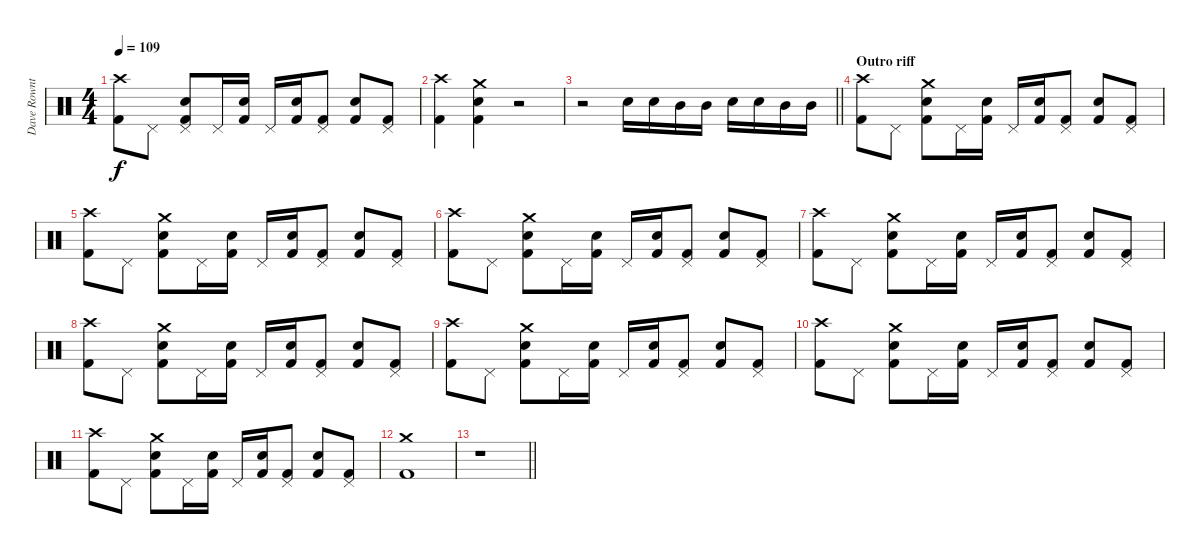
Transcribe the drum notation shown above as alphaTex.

\track ("Dave Rowntree - Drums" "Dave Rownt") {instrument percussion}
\staff {score}
\articulation defaults
\ts (4 4)
\tempo 109
\clef neutral
\ks c
("Kick (hit) 2" "Crash high (hit)").8{dy f} "Pedal Hi-Hat (hit)".8 ("Kick (hit) 2" "Pedal Hi-Hat (hit)" "Electric Snare (hit)").8 "Pedal Hi-Hat (hit)".16 ("Kick (hit) 2" "Electric Snare (hit)").16 "Pedal Hi-Hat (hit)".16 ("Kick (hit) 2" "Electric Snare (hit)").16 ("Kick (hit) 2" "Pedal Hi-Hat (hit)").8 ("Kick (hit) 2" "Electric Snare (hit)").8 ("Kick (hit) 2" "Pedal Hi-Hat (hit)").8 |
("Kick (hit) 2" "Crash high (hit)").4 ("Kick (hit) 2" "Crash medium (hit)" "Electric Snare (hit)").4 r.2 |
\barLineRight lightlight
r.2 "Electric Snare (hit)".16 "Electric Snare (hit)".16 "Mid Tom (hit)".16 "Mid Tom (hit)".16 "Electric Snare (hit)".16 "Electric Snare (hit)".16 "Mid Tom (hit)".16 "Mid Tom (hit)".16 |
\section ("" "Outro riff")
("Kick (hit) 2" "Crash high (hit)").8 "Pedal Hi-Hat (hit)".8 ("Kick (hit) 2" "Crash medium (hit)" "Electric Snare (hit)").8 "Pedal Hi-Hat (hit)".16 ("Kick (hit) 2" "Electric Snare (hit)").16 "Pedal Hi-Hat (hit)".16 ("Kick (hit) 2" "Electric Snare (hit)").16 ("Kick (hit) 2" "Pedal Hi-Hat (hit)").8 ("Kick (hit) 2" "Electric Snare (hit)").8 ("Kick (hit) 2" "Pedal Hi-Hat (hit)").8 |
("Kick (hit) 2" "Crash high (hit)").8 "Pedal Hi-Hat (hit)".8 ("Kick (hit) 2" "Crash medium (hit)" "Electric Snare (hit)").8 "Pedal Hi-Hat (hit)".16 ("Kick (hit) 2" "Electric Snare (hit)").16 "Pedal Hi-Hat (hit)".16 ("Kick (hit) 2" "Electric Snare (hit)").16 ("Kick (hit) 2" "Pedal Hi-Hat (hit)").8 ("Kick (hit) 2" "Electric Snare (hit)").8 ("Kick (hit) 2" "Pedal Hi-Hat (hit)").8 |
("Kick (hit) 2" "Crash high (hit)").8 "Pedal Hi-Hat (hit)".8 ("Kick (hit) 2" "Crash medium (hit)" "Electric Snare (hit)").8 "Pedal Hi-Hat (hit)".16 ("Kick (hit) 2" "Electric Snare (hit)").16 "Pedal Hi-Hat (hit)".16 ("Kick (hit) 2" "Electric Snare (hit)").16 ("Kick (hit) 2" "Pedal Hi-Hat (hit)").8 ("Kick (hit) 2" "Electric Snare (hit)").8 ("Kick (hit) 2" "Pedal Hi-Hat (hit)").8 |
("Kick (hit) 2" "Crash high (hit)").8 "Pedal Hi-Hat (hit)".8 ("Kick (hit) 2" "Crash medium (hit)" "Electric Snare (hit)").8 "Pedal Hi-Hat (hit)".16 ("Kick (hit) 2" "Electric Snare (hit)").16 "Pedal Hi-Hat (hit)".16 ("Kick (hit) 2" "Electric Snare (hit)").16 ("Kick (hit) 2" "Pedal Hi-Hat (hit)").8 ("Kick (hit) 2" "Electric Snare (hit)").8 ("Kick (hit) 2" "Pedal Hi-Hat (hit)").8 |
("Kick (hit) 2" "Crash high (hit)").8 "Pedal Hi-Hat (hit)".8 ("Kick (hit) 2" "Crash medium (hit)" "Electric Snare (hit)").8 "Pedal Hi-Hat (hit)".16 ("Kick (hit) 2" "Electric Snare (hit)").16 "Pedal Hi-Hat (hit)".16 ("Kick (hit) 2" "Electric Snare (hit)").16 ("Kick (hit) 2" "Pedal Hi-Hat (hit)").8 ("Kick (hit) 2" "Electric Snare (hit)").8 ("Kick (hit) 2" "Pedal Hi-Hat (hit)").8 |
("Kick (hit) 2" "Crash high (hit)").8 "Pedal Hi-Hat (hit)".8 ("Kick (hit) 2" "Crash medium (hit)" "Electric Snare (hit)").8 "Pedal Hi-Hat (hit)".16 ("Kick (hit) 2" "Electric Snare (hit)").16 "Pedal Hi-Hat (hit)".16 ("Kick (hit) 2" "Electric Snare (hit)").16 ("Kick (hit) 2" "Pedal Hi-Hat (hit)").8 ("Kick (hit) 2" "Electric Snare (hit)").8 ("Kick (hit) 2" "Pedal Hi-Hat (hit)").8 |
("Kick (hit) 2" "Crash high (hit)").8 "Pedal Hi-Hat (hit)".8 ("Kick (hit) 2" "Crash medium (hit)" "Electric Snare (hit)").8 "Pedal Hi-Hat (hit)".16 ("Kick (hit) 2" "Electric Snare (hit)").16 "Pedal Hi-Hat (hit)".16 ("Kick (hit) 2" "Electric Snare (hit)").16 ("Kick (hit) 2" "Pedal Hi-Hat (hit)").8 ("Kick (hit) 2" "Electric Snare (hit)").8 ("Kick (hit) 2" "Pedal Hi-Hat (hit)").8 |
("Kick (hit) 2" "Crash high (hit)").8 "Pedal Hi-Hat (hit)".8 ("Kick (hit) 2" "Crash medium (hit)" "Electric Snare (hit)").8 "Pedal Hi-Hat (hit)".16 ("Kick (hit) 2" "Electric Snare (hit)").16 "Pedal Hi-Hat (hit)".16 ("Kick (hit) 2" "Electric Snare (hit)").16 ("Kick (hit) 2" "Pedal Hi-Hat (hit)").8 ("Kick (hit) 2" "Electric Snare (hit)").8 ("Kick (hit) 2" "Pedal Hi-Hat (hit)").8 |
("Kick (hit) 2" "Crash medium (hit)").1 |
\barLineRight lightlight
r.1
